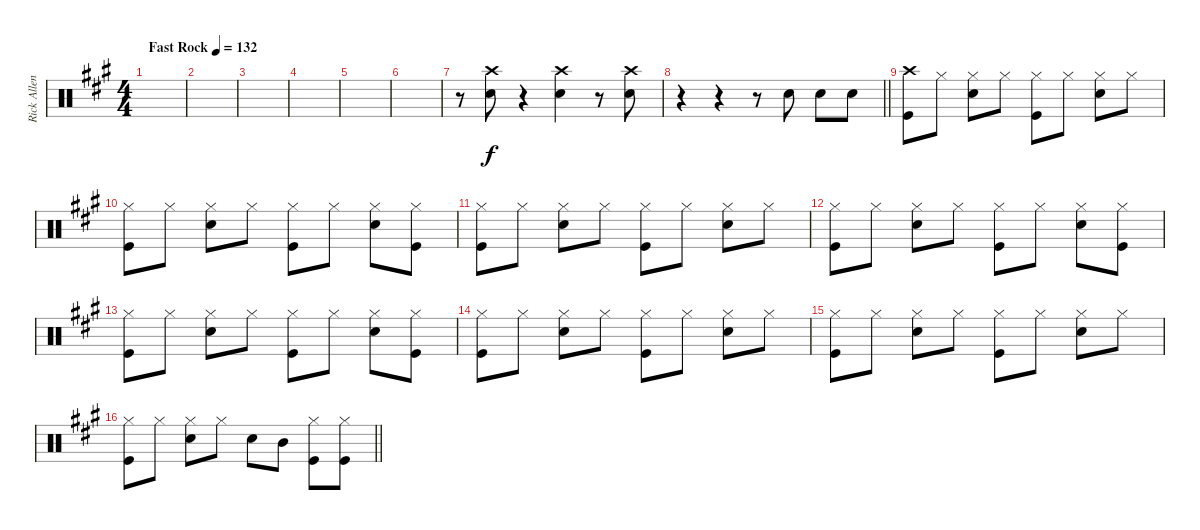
\track ("Rick Allen" "Rick Allen") {instrument percussion}
\staff {score}
\articulation defaults
\ts (4 4)
\tempo (132 "Fast Rock")
\clef neutral
\ks a
|
|
|
|
|
|
r.8 ("Crash high (hit)" "Snare (hit) 2").8 r.4 ("Crash high (hit)" "Snare (hit) 2").4 r.8 ("Crash high (hit)" "Snare (hit) 2").8 |
\barLineRight lightlight
r.4 r.4 r.8 "Snare (hit) 2".8 "Snare (hit) 2".8 "Snare (hit) 2".8 |
("Crash high (hit)" "Kick (hit)").8 "Hi-Hat (closed)".8 ("Hi-Hat (closed)" "Snare (hit) 2").8 "Hi-Hat (closed)".8 ("Hi-Hat (closed)" "Kick (hit)").8 "Hi-Hat (closed)".8 ("Hi-Hat (closed)" "Snare (hit) 2").8 "Hi-Hat (closed)".8 |
("Hi-Hat (closed)" "Kick (hit)").8 "Hi-Hat (closed)".8 ("Hi-Hat (closed)" "Snare (hit) 2").8 "Hi-Hat (closed)".8 ("Hi-Hat (closed)" "Kick (hit)").8 "Hi-Hat (closed)".8 ("Hi-Hat (closed)" "Snare (hit) 2").8 ("Hi-Hat (closed)" "Kick (hit)").8 |
("Hi-Hat (closed)" "Kick (hit)").8 "Hi-Hat (closed)".8 ("Hi-Hat (closed)" "Snare (hit) 2").8 "Hi-Hat (closed)".8 ("Hi-Hat (closed)" "Kick (hit)").8 "Hi-Hat (closed)".8 ("Hi-Hat (closed)" "Snare (hit) 2").8 "Hi-Hat (closed)".8 |
("Hi-Hat (closed)" "Kick (hit)").8 "Hi-Hat (closed)".8 ("Hi-Hat (closed)" "Snare (hit) 2").8 "Hi-Hat (closed)".8 ("Hi-Hat (closed)" "Kick (hit)").8 "Hi-Hat (closed)".8 ("Hi-Hat (closed)" "Snare (hit) 2").8 ("Hi-Hat (closed)" "Kick (hit)").8 |
("Hi-Hat (closed)" "Kick (hit)").8 "Hi-Hat (closed)".8 ("Hi-Hat (closed)" "Snare (hit) 2").8 "Hi-Hat (closed)".8 ("Hi-Hat (closed)" "Kick (hit)").8 "Hi-Hat (closed)".8 ("Hi-Hat (closed)" "Snare (hit) 2").8 ("Hi-Hat (closed)" "Kick (hit)").8 |
("Hi-Hat (closed)" "Kick (hit)").8 "Hi-Hat (closed)".8 ("Hi-Hat (closed)" "Snare (hit) 2").8 "Hi-Hat (closed)".8 ("Hi-Hat (closed)" "Kick (hit)").8 "Hi-Hat (closed)".8 ("Hi-Hat (closed)" "Snare (hit) 2").8 "Hi-Hat (closed)".8 |
("Hi-Hat (closed)" "Kick (hit)").8 "Hi-Hat (closed)".8 ("Hi-Hat (closed)" "Snare (hit) 2").8 "Hi-Hat (closed)".8 ("Hi-Hat (closed)" "Kick (hit)").8 "Hi-Hat (closed)".8 ("Hi-Hat (closed)" "Snare (hit) 2").8 "Hi-Hat (closed)".8 |
\barLineRight lightlight
("Hi-Hat (closed)" "Kick (hit)").8 "Hi-Hat (closed)".8 ("Hi-Hat (closed)" "Snare (hit) 2").8 "Hi-Hat (closed)".8 "Snare (hit) 2".8 "Mid Tom (hit)".8 ("Hi-Hat (closed)" "Kick (hit)").8 ("Hi-Hat (closed)" "Kick (hit)").8
